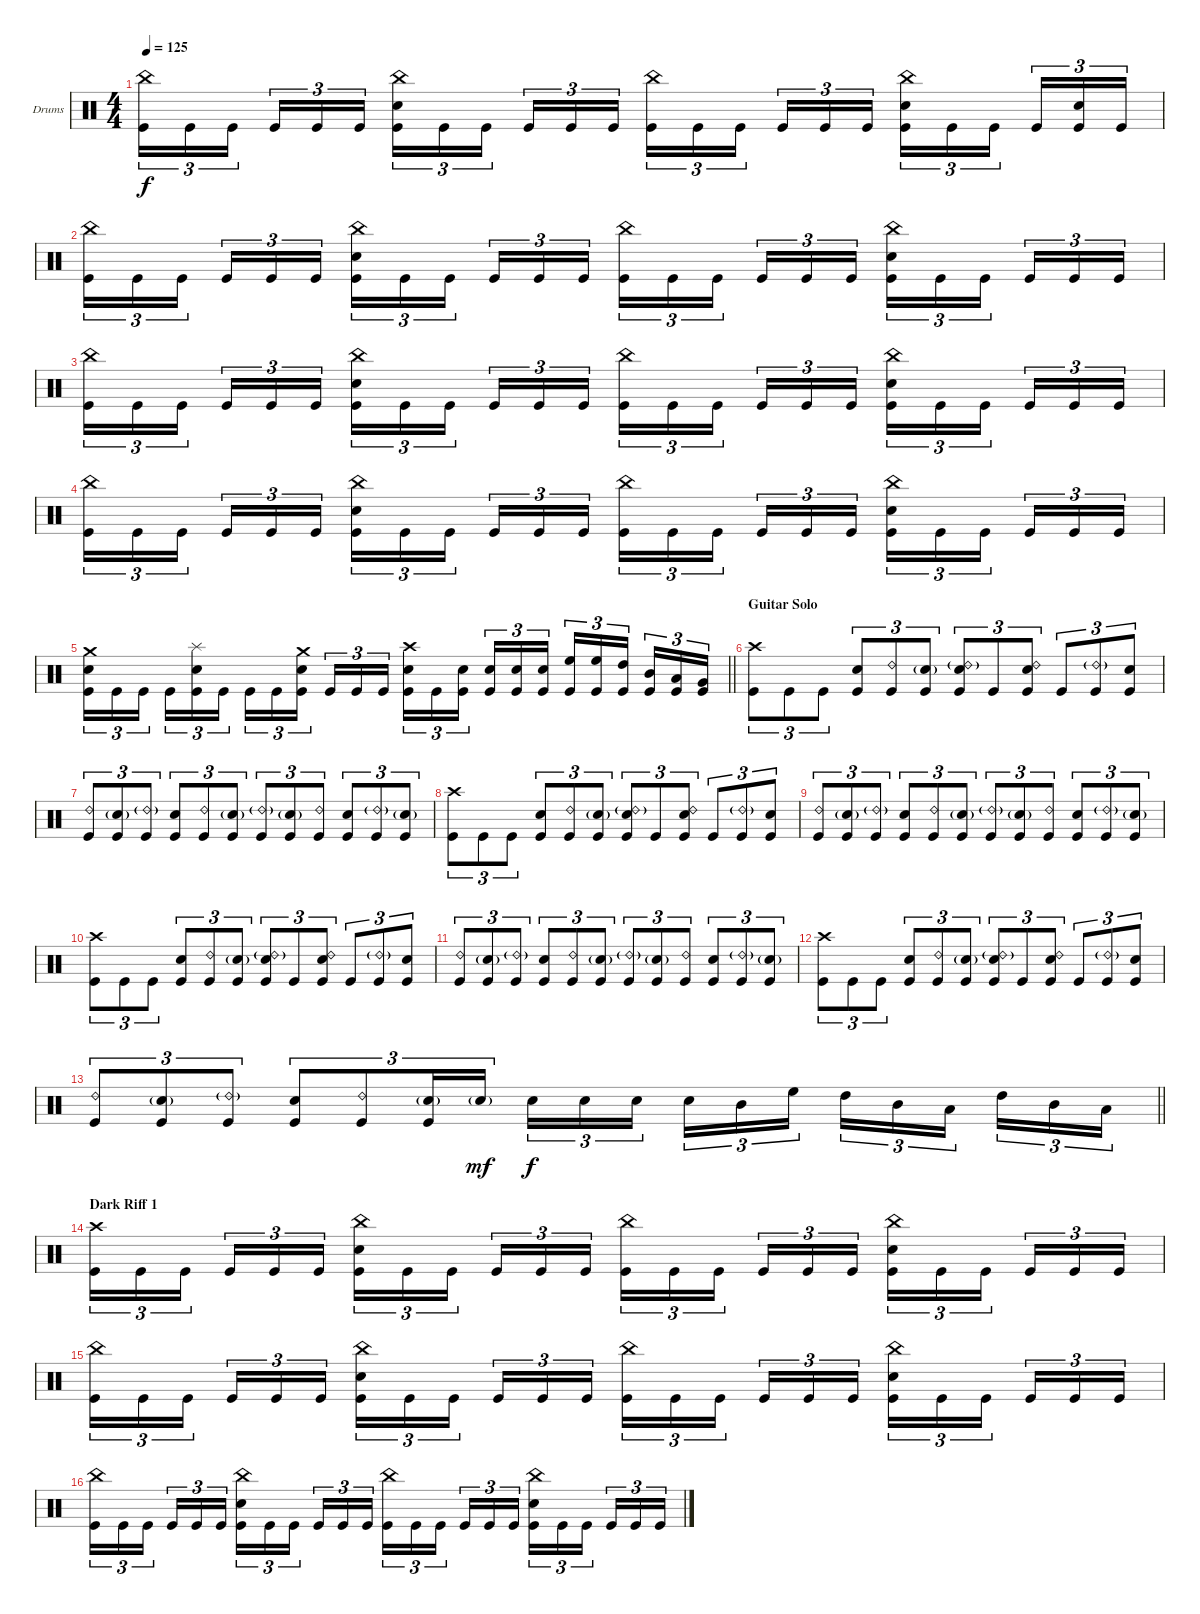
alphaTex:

\bracketExtendMode nobrackets
\firstSystemTrackNameOrientation horizontal
\otherSystemsTrackNameOrientation horizontal
\track ("Drumkit" "Drums") {instrument percussion}
\staff {score}
\articulation defaults
\ts (4 4)
\tempo 125
\clef neutral
\ks c
("China (hit)" "Kick (hit)").16{tu (3 2) dy f} "Kick (hit)".16{tu (3 2)} "Kick (hit)".16{tu (3 2)} "Kick (hit)".16{tu (3 2)} "Kick (hit)".16{tu (3 2)} "Kick (hit)".16{tu (3 2)} ("China (hit)" "Snare (hit) 2" "Kick (hit)").16{tu (3 2)} "Kick (hit)".16{tu (3 2)} "Kick (hit)".16{tu (3 2)} "Kick (hit)".16{tu (3 2)} "Kick (hit)".16{tu (3 2)} "Kick (hit)".16{tu (3 2)} ("China (hit)" "Kick (hit)").16{tu (3 2)} "Kick (hit)".16{tu (3 2)} "Kick (hit)".16{tu (3 2)} "Kick (hit)".16{tu (3 2)} "Kick (hit)".16{tu (3 2)} "Kick (hit)".16{tu (3 2)} ("China (hit)" "Snare (hit) 2" "Kick (hit)").16{tu (3 2)} "Kick (hit)".16{tu (3 2)} "Kick (hit)".16{tu (3 2)} "Kick (hit)".16{tu (3 2)} ("Snare (hit) 2" "Kick (hit)").16{tu (3 2)} "Kick (hit)".16{tu (3 2)} |
("China (hit)" "Kick (hit)").16{tu (3 2)} "Kick (hit)".16{tu (3 2)} "Kick (hit)".16{tu (3 2)} "Kick (hit)".16{tu (3 2)} "Kick (hit)".16{tu (3 2)} "Kick (hit)".16{tu (3 2)} ("China (hit)" "Snare (hit) 2" "Kick (hit)").16{tu (3 2)} "Kick (hit)".16{tu (3 2)} "Kick (hit)".16{tu (3 2)} "Kick (hit)".16{tu (3 2)} "Kick (hit)".16{tu (3 2)} "Kick (hit)".16{tu (3 2)} ("China (hit)" "Kick (hit)").16{tu (3 2)} "Kick (hit)".16{tu (3 2)} "Kick (hit)".16{tu (3 2)} "Kick (hit)".16{tu (3 2)} "Kick (hit)".16{tu (3 2)} "Kick (hit)".16{tu (3 2)} ("China (hit)" "Snare (hit) 2" "Kick (hit)").16{tu (3 2)} "Kick (hit)".16{tu (3 2)} "Kick (hit)".16{tu (3 2)} "Kick (hit)".16{tu (3 2)} "Kick (hit)".16{tu (3 2)} "Kick (hit)".16{tu (3 2)} |
("China (hit)" "Kick (hit)").16{tu (3 2)} "Kick (hit)".16{tu (3 2)} "Kick (hit)".16{tu (3 2)} "Kick (hit)".16{tu (3 2)} "Kick (hit)".16{tu (3 2)} "Kick (hit)".16{tu (3 2)} ("China (hit)" "Snare (hit) 2" "Kick (hit)").16{tu (3 2)} "Kick (hit)".16{tu (3 2)} "Kick (hit)".16{tu (3 2)} "Kick (hit)".16{tu (3 2)} "Kick (hit)".16{tu (3 2)} "Kick (hit)".16{tu (3 2)} ("China (hit)" "Kick (hit)").16{tu (3 2)} "Kick (hit)".16{tu (3 2)} "Kick (hit)".16{tu (3 2)} "Kick (hit)".16{tu (3 2)} "Kick (hit)".16{tu (3 2)} "Kick (hit)".16{tu (3 2)} ("China (hit)" "Snare (hit) 2" "Kick (hit)").16{tu (3 2)} "Kick (hit)".16{tu (3 2)} "Kick (hit)".16{tu (3 2)} "Kick (hit)".16{tu (3 2)} "Kick (hit)".16{tu (3 2)} "Kick (hit)".16{tu (3 2)} |
("China (hit)" "Kick (hit)").16{tu (3 2)} "Kick (hit)".16{tu (3 2)} "Kick (hit)".16{tu (3 2)} "Kick (hit)".16{tu (3 2)} "Kick (hit)".16{tu (3 2)} "Kick (hit)".16{tu (3 2)} ("China (hit)" "Snare (hit) 2" "Kick (hit)").16{tu (3 2)} "Kick (hit)".16{tu (3 2)} "Kick (hit)".16{tu (3 2)} "Kick (hit)".16{tu (3 2)} "Kick (hit)".16{tu (3 2)} "Kick (hit)".16{tu (3 2)} ("China (hit)" "Kick (hit)").16{tu (3 2)} "Kick (hit)".16{tu (3 2)} "Kick (hit)".16{tu (3 2)} "Kick (hit)".16{tu (3 2)} "Kick (hit)".16{tu (3 2)} "Kick (hit)".16{tu (3 2)} ("China (hit)" "Snare (hit) 2" "Kick (hit)").16{tu (3 2)} "Kick (hit)".16{tu (3 2)} "Kick (hit)".16{tu (3 2)} "Kick (hit)".16{tu (3 2)} "Kick (hit)".16{tu (3 2)} "Kick (hit)".16{tu (3 2)} |
\barLineRight lightlight
("Crash medium (hit)" "Snare (hit) 2" "Kick (hit)").16{tu (3 2)} "Kick (hit)".16{tu (3 2)} "Kick (hit)".16{tu (3 2)} "Kick (hit)".16{tu (3 2)} ("Splash (hit)" "Snare (hit) 2" "Kick (hit)").16{tu (3 2)} "Kick (hit)".16{tu (3 2)} "Kick (hit)".16{tu (3 2)} "Kick (hit)".16{tu (3 2)} ("Crash medium (hit)" "Snare (hit) 2" "Kick (hit)").16{tu (3 2)} "Kick (hit)".16{tu (3 2)} "Kick (hit)".16{tu (3 2)} "Kick (hit)".16{tu (3 2)} ("Crash high (hit)" "Snare (hit) 2" "Kick (hit)").16{tu (3 2)} "Kick (hit)".16{tu (3 2)} ("Snare (hit) 2" "Kick (hit)").16{tu (3 2)} ("Snare (hit) 2" "Kick (hit)").16{tu (3 2)} ("Snare (hit) 2" "Kick (hit)").16{tu (3 2)} ("Snare (hit) 2" "Kick (hit)").16{tu (3 2)} ("High Floor Tom (hit)" "Kick (hit)").16{tu (3 2)} ("High Floor Tom (hit)" "Kick (hit)").16{tu (3 2)} ("High Tom (hit)" "Kick (hit)").16{tu (3 2)} ("Mid Tom (hit)" "Kick (hit)").16{tu (3 2)} ("Low Tom (hit)" "Kick (hit)").16{tu (3 2)} ("Very Low Tom (hit)" "Kick (hit)").16{tu (3 2)} |
\section ("" "Guitar Solo")
("Crash high (hit)" "Kick (hit)").8{tu (3 2)} "Kick (hit)".8{tu (3 2)} "Kick (hit)".8{tu (3 2)} ("Snare (hit) 2" "Kick (hit)").8{tu (3 2)} ("Ride (bell) 2" "Kick (hit)").8{tu (3 2)} ("Snare (hit) 2"{g} "Kick (hit)").8{tu (3 2)} ("Ride (bell) 2"{g} "Snare (hit) 2" "Kick (hit)").8{tu (3 2)} "Kick (hit)".8{tu (3 2)} ("Ride (bell) 2" "Snare (hit) 2" "Kick (hit)").8{tu (3 2)} "Kick (hit)".8{tu (3 2)} ("Ride (bell) 2"{g} "Kick (hit)").8{tu (3 2)} ("Snare (hit) 2" "Kick (hit)").8{tu (3 2)} |
("Ride (bell) 2" "Kick (hit)").8{tu (3 2)} ("Snare (hit) 2"{g} "Kick (hit)").8{tu (3 2)} ("Ride (bell) 2"{g} "Kick (hit)").8{tu (3 2)} ("Snare (hit) 2" "Kick (hit)").8{tu (3 2)} ("Ride (bell) 2" "Kick (hit)").8{tu (3 2)} ("Snare (hit) 2"{g} "Kick (hit)").8{tu (3 2)} ("Ride (bell) 2"{g} "Kick (hit)").8{tu (3 2)} ("Snare (hit) 2"{g} "Kick (hit)").8{tu (3 2)} ("Ride (bell) 2" "Kick (hit)").8{tu (3 2)} ("Snare (hit) 2" "Kick (hit)").8{tu (3 2)} ("Ride (bell) 2"{g} "Kick (hit)").8{tu (3 2)} ("Snare (hit) 2"{g} "Kick (hit)").8{tu (3 2)} |
("Crash high (hit)" "Kick (hit)").8{tu (3 2)} "Kick (hit)".8{tu (3 2)} "Kick (hit)".8{tu (3 2)} ("Snare (hit) 2" "Kick (hit)").8{tu (3 2)} ("Ride (bell) 2" "Kick (hit)").8{tu (3 2)} ("Snare (hit) 2"{g} "Kick (hit)").8{tu (3 2)} ("Ride (bell) 2"{g} "Snare (hit) 2" "Kick (hit)").8{tu (3 2)} "Kick (hit)".8{tu (3 2)} ("Ride (bell) 2" "Snare (hit) 2" "Kick (hit)").8{tu (3 2)} "Kick (hit)".8{tu (3 2)} ("Ride (bell) 2"{g} "Kick (hit)").8{tu (3 2)} ("Snare (hit) 2" "Kick (hit)").8{tu (3 2)} |
("Ride (bell) 2" "Kick (hit)").8{tu (3 2)} ("Snare (hit) 2"{g} "Kick (hit)").8{tu (3 2)} ("Ride (bell) 2"{g} "Kick (hit)").8{tu (3 2)} ("Snare (hit) 2" "Kick (hit)").8{tu (3 2)} ("Ride (bell) 2" "Kick (hit)").8{tu (3 2)} ("Snare (hit) 2"{g} "Kick (hit)").8{tu (3 2)} ("Ride (bell) 2"{g} "Kick (hit)").8{tu (3 2)} ("Snare (hit) 2"{g} "Kick (hit)").8{tu (3 2)} ("Ride (bell) 2" "Kick (hit)").8{tu (3 2)} ("Snare (hit) 2" "Kick (hit)").8{tu (3 2)} ("Ride (bell) 2"{g} "Kick (hit)").8{tu (3 2)} ("Snare (hit) 2"{g} "Kick (hit)").8{tu (3 2)} |
("Crash high (hit)" "Kick (hit)").8{tu (3 2)} "Kick (hit)".8{tu (3 2)} "Kick (hit)".8{tu (3 2)} ("Snare (hit) 2" "Kick (hit)").8{tu (3 2)} ("Ride (bell) 2" "Kick (hit)").8{tu (3 2)} ("Snare (hit) 2"{g} "Kick (hit)").8{tu (3 2)} ("Ride (bell) 2"{g} "Snare (hit) 2" "Kick (hit)").8{tu (3 2)} "Kick (hit)".8{tu (3 2)} ("Ride (bell) 2" "Snare (hit) 2" "Kick (hit)").8{tu (3 2)} "Kick (hit)".8{tu (3 2)} ("Ride (bell) 2"{g} "Kick (hit)").8{tu (3 2)} ("Snare (hit) 2" "Kick (hit)").8{tu (3 2)} |
("Ride (bell) 2" "Kick (hit)").8{tu (3 2)} ("Snare (hit) 2"{g} "Kick (hit)").8{tu (3 2)} ("Ride (bell) 2"{g} "Kick (hit)").8{tu (3 2)} ("Snare (hit) 2" "Kick (hit)").8{tu (3 2)} ("Ride (bell) 2" "Kick (hit)").8{tu (3 2)} ("Snare (hit) 2"{g} "Kick (hit)").8{tu (3 2)} ("Ride (bell) 2"{g} "Kick (hit)").8{tu (3 2)} ("Snare (hit) 2"{g} "Kick (hit)").8{tu (3 2)} ("Ride (bell) 2" "Kick (hit)").8{tu (3 2)} ("Snare (hit) 2" "Kick (hit)").8{tu (3 2)} ("Ride (bell) 2"{g} "Kick (hit)").8{tu (3 2)} ("Snare (hit) 2"{g} "Kick (hit)").8{tu (3 2)} |
("Crash high (hit)" "Kick (hit)").8{tu (3 2)} "Kick (hit)".8{tu (3 2)} "Kick (hit)".8{tu (3 2)} ("Snare (hit) 2" "Kick (hit)").8{tu (3 2)} ("Ride (bell) 2" "Kick (hit)").8{tu (3 2)} ("Snare (hit) 2"{g} "Kick (hit)").8{tu (3 2)} ("Ride (bell) 2"{g} "Snare (hit) 2" "Kick (hit)").8{tu (3 2)} "Kick (hit)".8{tu (3 2)} ("Ride (bell) 2" "Snare (hit) 2" "Kick (hit)").8{tu (3 2)} "Kick (hit)".8{tu (3 2)} ("Ride (bell) 2"{g} "Kick (hit)").8{tu (3 2)} ("Snare (hit) 2" "Kick (hit)").8{tu (3 2)} |
\barLineRight lightlight
("Ride (bell) 2" "Kick (hit)").8{tu (3 2)} ("Snare (hit) 2"{g} "Kick (hit)").8{tu (3 2)} ("Ride (bell) 2"{g} "Kick (hit)").8{tu (3 2)} ("Snare (hit) 2" "Kick (hit)").8{tu (3 2)} ("Ride (bell) 2" "Kick (hit)").8{tu (3 2)} ("Snare (hit) 2"{g} "Kick (hit)").16{tu (3 2)} "Snare (hit) 2"{g}.16{tu (3 2) dy mf} "Snare (hit) 2".16{tu (3 2) dy f} "Snare (hit) 2".16{tu (3 2)} "Snare (hit) 2".16{tu (3 2)} "Snare (hit) 2".16{tu (3 2)} "Mid Tom (hit)".16{tu (3 2)} "High Floor Tom (hit)".16{tu (3 2)} "High Tom (hit)".16{tu (3 2)} "Mid Tom (hit)".16{tu (3 2)} "Low Tom (hit)".16{tu (3 2)} "High Tom (hit)".16{tu (3 2)} "Mid Tom (hit)".16{tu (3 2)} "Low Tom (hit)".16{tu (3 2)} |
\section ("" "Dark Riff 1")
("Crash high (hit)" "Kick (hit)").16{tu (3 2)} "Kick (hit)".16{tu (3 2)} "Kick (hit)".16{tu (3 2)} "Kick (hit)".16{tu (3 2)} "Kick (hit)".16{tu (3 2)} "Kick (hit)".16{tu (3 2)} ("China (hit)" "Snare (hit) 2" "Kick (hit)").16{tu (3 2)} "Kick (hit)".16{tu (3 2)} "Kick (hit)".16{tu (3 2)} "Kick (hit)".16{tu (3 2)} "Kick (hit)".16{tu (3 2)} "Kick (hit)".16{tu (3 2)} ("China (hit)" "Kick (hit)").16{tu (3 2)} "Kick (hit)".16{tu (3 2)} "Kick (hit)".16{tu (3 2)} "Kick (hit)".16{tu (3 2)} "Kick (hit)".16{tu (3 2)} "Kick (hit)".16{tu (3 2)} ("China (hit)" "Snare (hit) 2" "Kick (hit)").16{tu (3 2)} "Kick (hit)".16{tu (3 2)} "Kick (hit)".16{tu (3 2)} "Kick (hit)".16{tu (3 2)} "Kick (hit)".16{tu (3 2)} "Kick (hit)".16{tu (3 2)} |
("China (hit)" "Kick (hit)").16{tu (3 2)} "Kick (hit)".16{tu (3 2)} "Kick (hit)".16{tu (3 2)} "Kick (hit)".16{tu (3 2)} "Kick (hit)".16{tu (3 2)} "Kick (hit)".16{tu (3 2)} ("China (hit)" "Snare (hit) 2" "Kick (hit)").16{tu (3 2)} "Kick (hit)".16{tu (3 2)} "Kick (hit)".16{tu (3 2)} "Kick (hit)".16{tu (3 2)} "Kick (hit)".16{tu (3 2)} "Kick (hit)".16{tu (3 2)} ("China (hit)" "Kick (hit)").16{tu (3 2)} "Kick (hit)".16{tu (3 2)} "Kick (hit)".16{tu (3 2)} "Kick (hit)".16{tu (3 2)} "Kick (hit)".16{tu (3 2)} "Kick (hit)".16{tu (3 2)} ("China (hit)" "Snare (hit) 2" "Kick (hit)").16{tu (3 2)} "Kick (hit)".16{tu (3 2)} "Kick (hit)".16{tu (3 2)} "Kick (hit)".16{tu (3 2)} "Kick (hit)".16{tu (3 2)} "Kick (hit)".16{tu (3 2)} |
("China (hit)" "Kick (hit)").16{tu (3 2)} "Kick (hit)".16{tu (3 2)} "Kick (hit)".16{tu (3 2)} "Kick (hit)".16{tu (3 2)} "Kick (hit)".16{tu (3 2)} "Kick (hit)".16{tu (3 2)} ("China (hit)" "Snare (hit) 2" "Kick (hit)").16{tu (3 2)} "Kick (hit)".16{tu (3 2)} "Kick (hit)".16{tu (3 2)} "Kick (hit)".16{tu (3 2)} "Kick (hit)".16{tu (3 2)} "Kick (hit)".16{tu (3 2)} ("China (hit)" "Kick (hit)").16{tu (3 2)} "Kick (hit)".16{tu (3 2)} "Kick (hit)".16{tu (3 2)} "Kick (hit)".16{tu (3 2)} "Kick (hit)".16{tu (3 2)} "Kick (hit)".16{tu (3 2)} ("China (hit)" "Snare (hit) 2" "Kick (hit)").16{tu (3 2)} "Kick (hit)".16{tu (3 2)} "Kick (hit)".16{tu (3 2)} "Kick (hit)".16{tu (3 2)} "Kick (hit)".16{tu (3 2)} "Kick (hit)".16{tu (3 2)}
